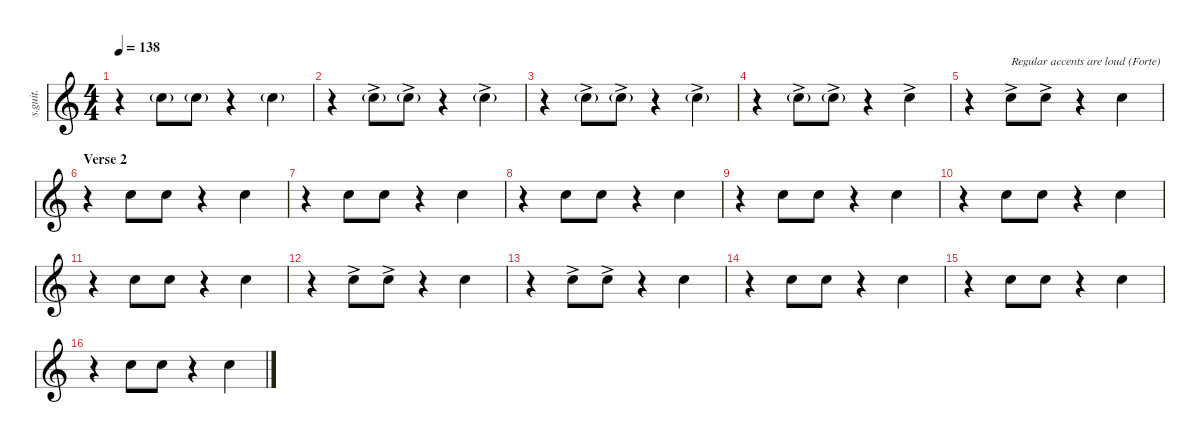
\defaultSystemsLayout 4
\hideDynamics
\bracketExtendMode nobrackets
\track ("Hand Claps" "s.guit.") {instrument percussion}
\staff {score}
\articulation defaults
\ts (4 4)
\tempo 138
\clef g2
\ks c
r.4{dy fff} "Hand Clap (hit)"{g}.8 "Hand Clap (hit)"{g}.8 r.4 "Hand Clap (hit)"{g}.4 |
r.4 "Hand Clap (hit)"{g ac}.8 "Hand Clap (hit)"{g ac}.8 r.4 "Hand Clap (hit)"{g ac}.4 |
r.4 "Hand Clap (hit)"{g ac}.8 "Hand Clap (hit)"{g ac}.8 r.4 "Hand Clap (hit)"{g ac}.4 |
r.4 "Hand Clap (hit)"{g ac}.8 "Hand Clap (hit)"{g ac}.8 r.4 "Hand Clap (hit)"{ac}.4 |
r.4 "Hand Clap (hit)"{ac}.8{txt "Regular accents are loud (Forte)"} "Hand Clap (hit)"{ac}.8 r.4 "Hand Clap (hit)".4 |
\section ("" "Verse 2")
r.4 "Hand Clap (hit)".8 "Hand Clap (hit)".8 r.4 "Hand Clap (hit)".4 |
r.4 "Hand Clap (hit)".8 "Hand Clap (hit)".8 r.4 "Hand Clap (hit)".4 |
r.4 "Hand Clap (hit)".8 "Hand Clap (hit)".8 r.4 "Hand Clap (hit)".4 |
r.4 "Hand Clap (hit)".8 "Hand Clap (hit)".8 r.4 "Hand Clap (hit)".4 |
r.4 "Hand Clap (hit)".8 "Hand Clap (hit)".8 r.4 "Hand Clap (hit)".4 |
r.4 "Hand Clap (hit)".8 "Hand Clap (hit)".8 r.4 "Hand Clap (hit)".4 |
r.4 "Hand Clap (hit)"{ac}.8 "Hand Clap (hit)"{ac}.8 r.4 "Hand Clap (hit)".4 |
r.4 "Hand Clap (hit)"{ac}.8 "Hand Clap (hit)"{ac}.8 r.4 "Hand Clap (hit)".4 |
r.4 "Hand Clap (hit)".8 "Hand Clap (hit)".8 r.4 "Hand Clap (hit)".4 |
r.4 "Hand Clap (hit)".8 "Hand Clap (hit)".8 r.4 "Hand Clap (hit)".4 |
r.4 "Hand Clap (hit)".8 "Hand Clap (hit)".8 r.4 "Hand Clap (hit)".4
